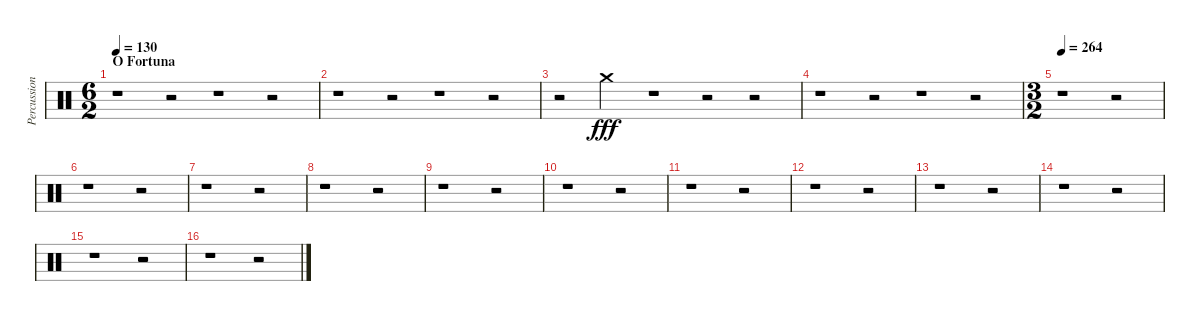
\track ("Percussion" "Percussion") {instrument percussion}
\staff {score}
\articulation defaults
\ts (6 2)
\section ("" "O Fortuna")
\tempo 130
\clef neutral
\ks c
r.1{dy fff} r.2 r.1 r.2 |
r.1 r.2 r.1 r.2 |
r.2 "Crash medium (hit)".2 r.1 r.2 r.2 |
r.1 r.2 r.1 r.2 |
\ts (3 2)
\tempo 264
r.1 r.2 |
r.1 r.2 |
r.1 r.2 |
r.1 r.2 |
r.1 r.2 |
r.1 r.2 |
r.1 r.2 |
r.1 r.2 |
r.1 r.2 |
r.1 r.2 |
r.1 r.2 |
r.1 r.2
